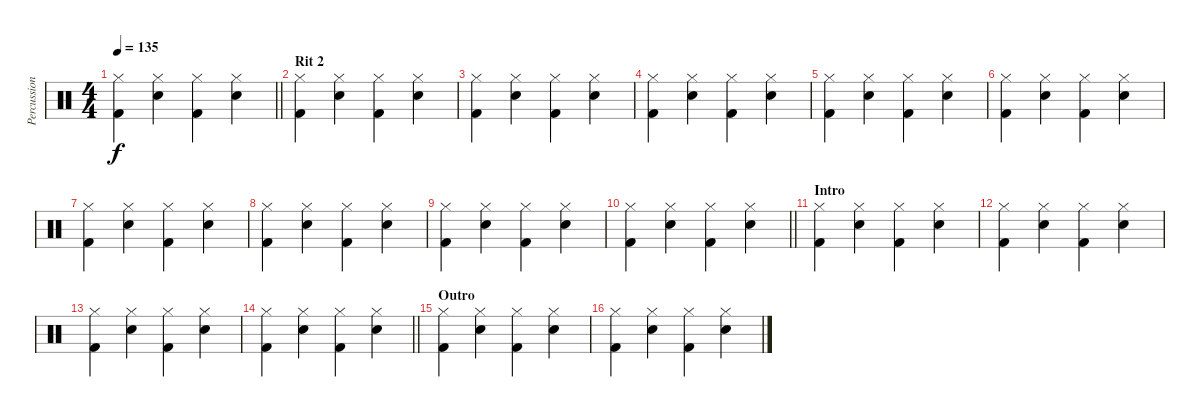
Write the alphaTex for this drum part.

\track ("Percussion" "Percussion") {instrument percussion}
\staff {score}
\articulation defaults
\ts (4 4)
\tempo 135
\clef neutral
\barLineRight lightlight
\ks c
("Hi-Hat (closed)" "Kick (hit) 2").4{dy f} ("Hi-Hat (closed)" "Electric Snare (hit)").4 ("Hi-Hat (closed)" "Kick (hit) 2").4 ("Hi-Hat (closed)" "Electric Snare (hit)").4 |
\section ("" "Rit 2")
("Hi-Hat (closed)" "Kick (hit) 2").4 ("Hi-Hat (closed)" "Electric Snare (hit)").4 ("Hi-Hat (closed)" "Kick (hit) 2").4 ("Hi-Hat (closed)" "Electric Snare (hit)").4 |
("Hi-Hat (closed)" "Kick (hit) 2").4 ("Hi-Hat (closed)" "Electric Snare (hit)").4 ("Hi-Hat (closed)" "Kick (hit) 2").4 ("Hi-Hat (closed)" "Electric Snare (hit)").4 |
("Hi-Hat (closed)" "Kick (hit) 2").4 ("Hi-Hat (closed)" "Electric Snare (hit)").4 ("Hi-Hat (closed)" "Kick (hit) 2").4 ("Hi-Hat (closed)" "Electric Snare (hit)").4 |
("Hi-Hat (closed)" "Kick (hit) 2").4 ("Hi-Hat (closed)" "Electric Snare (hit)").4 ("Hi-Hat (closed)" "Kick (hit) 2").4 ("Hi-Hat (closed)" "Electric Snare (hit)").4 |
("Hi-Hat (closed)" "Kick (hit) 2").4 ("Hi-Hat (closed)" "Electric Snare (hit)").4 ("Hi-Hat (closed)" "Kick (hit) 2").4 ("Hi-Hat (closed)" "Electric Snare (hit)").4 |
("Hi-Hat (closed)" "Kick (hit) 2").4 ("Hi-Hat (closed)" "Electric Snare (hit)").4 ("Hi-Hat (closed)" "Kick (hit) 2").4 ("Hi-Hat (closed)" "Electric Snare (hit)").4 |
("Hi-Hat (closed)" "Kick (hit) 2").4 ("Hi-Hat (closed)" "Electric Snare (hit)").4 ("Hi-Hat (closed)" "Kick (hit) 2").4 ("Hi-Hat (closed)" "Electric Snare (hit)").4 |
("Hi-Hat (closed)" "Kick (hit) 2").4 ("Hi-Hat (closed)" "Electric Snare (hit)").4 ("Hi-Hat (closed)" "Kick (hit) 2").4 ("Hi-Hat (closed)" "Electric Snare (hit)").4 |
\barLineRight lightlight
("Hi-Hat (closed)" "Kick (hit) 2").4 ("Hi-Hat (closed)" "Electric Snare (hit)").4 ("Hi-Hat (closed)" "Kick (hit) 2").4 ("Hi-Hat (closed)" "Electric Snare (hit)").4 |
\section ("" "Intro")
("Hi-Hat (closed)" "Kick (hit) 2").4 ("Hi-Hat (closed)" "Electric Snare (hit)").4 ("Hi-Hat (closed)" "Kick (hit) 2").4 ("Hi-Hat (closed)" "Electric Snare (hit)").4 |
("Hi-Hat (closed)" "Kick (hit) 2").4 ("Hi-Hat (closed)" "Electric Snare (hit)").4 ("Hi-Hat (closed)" "Kick (hit) 2").4 ("Hi-Hat (closed)" "Electric Snare (hit)").4 |
("Hi-Hat (closed)" "Kick (hit) 2").4 ("Hi-Hat (closed)" "Electric Snare (hit)").4 ("Hi-Hat (closed)" "Kick (hit) 2").4 ("Hi-Hat (closed)" "Electric Snare (hit)").4 |
\barLineRight lightlight
("Hi-Hat (closed)" "Kick (hit) 2").4 ("Hi-Hat (closed)" "Electric Snare (hit)").4 ("Hi-Hat (closed)" "Kick (hit) 2").4 ("Hi-Hat (closed)" "Electric Snare (hit)").4 |
\section ("" "Outro")
("Hi-Hat (closed)" "Kick (hit) 2").4 ("Hi-Hat (closed)" "Electric Snare (hit)").4 ("Hi-Hat (closed)" "Kick (hit) 2").4 ("Hi-Hat (closed)" "Electric Snare (hit)").4 |
("Hi-Hat (closed)" "Kick (hit) 2").4 ("Hi-Hat (closed)" "Electric Snare (hit)").4 ("Hi-Hat (closed)" "Kick (hit) 2").4 ("Hi-Hat (closed)" "Electric Snare (hit)").4
